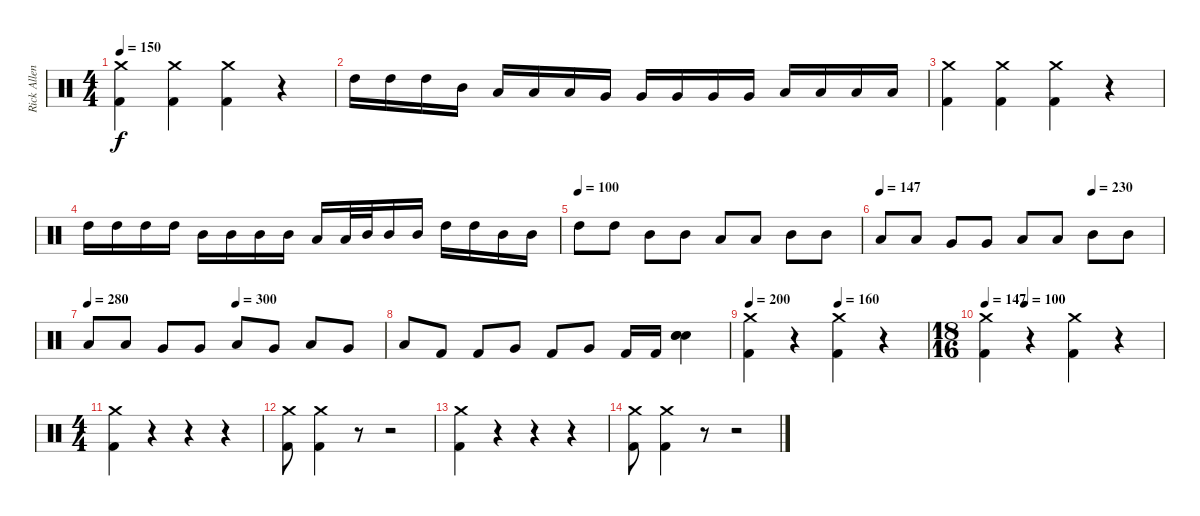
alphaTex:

\track ("Rick Allen" "Rick Allen") {instrument percussion}
\staff {score}
\articulation defaults
\ts (4 4)
\tempo 150
\clef neutral
\ks c
("Crash medium (hit)" "Kick (hit) 2").4{dy f} ("Crash medium (hit)" "Kick (hit) 2").4 ("Crash medium (hit)" "Kick (hit) 2").4 r.4 |
"High Tom (hit)".16 "High Tom (hit)".16 "High Tom (hit)".16 "Mid Tom (hit)".16 "Low Tom (hit)".16 "Low Tom (hit)".16 "Low Tom (hit)".16 "Very Low Tom (hit)".16 "Very Low Tom (hit)".16 "Very Low Tom (hit)".16 "Very Low Tom (hit)".16 "Very Low Tom (hit)".16 "Low Tom (hit)".16 "Low Tom (hit)".16 "Low Tom (hit)".16 "Low Tom (hit)".16 |
("Crash medium (hit)" "Kick (hit) 2").4 ("Crash medium (hit)" "Kick (hit) 2").4 ("Crash medium (hit)" "Kick (hit) 2").4 r.4 |
"High Tom (hit)".16 "High Tom (hit)".16 "High Tom (hit)".16 "High Tom (hit)".16 "Mid Tom (hit)".16 "Mid Tom (hit)".16 "Mid Tom (hit)".16 "Mid Tom (hit)".16 "Low Tom (hit)".16 "Low Tom (hit)".32 "Mid Tom (hit)".32 "Mid Tom (hit)".16 "Mid Tom (hit)".16 "High Tom (hit)".16 "High Tom (hit)".16 "Mid Tom (hit)".16 "Mid Tom (hit)".16 |
\tempo (100)
"High Tom (hit)".8 "High Tom (hit)".8 "Mid Tom (hit)".8 "Mid Tom (hit)".8 "Low Tom (hit)".8 "Low Tom (hit)".8 "Mid Tom (hit)".8 "Mid Tom (hit)".8 |
\tempo 147
\tempo (230 0.75)
"Low Tom (hit)".8 "Low Tom (hit)".8 "Very Low Tom (hit)".8 "Very Low Tom (hit)".8 "Low Tom (hit)".8 "Low Tom (hit)".8 "Mid Tom (hit)".8 "Mid Tom (hit)".8 |
\tempo 280
\tempo (300 0.5)
"Low Tom (hit)".8 "Low Tom (hit)".8 "Very Low Tom (hit)".8 "Very Low Tom (hit)".8 "Low Tom (hit)".8 "Very Low Tom (hit)".8 "Low Tom (hit)".8 "Very Low Tom (hit)".8 |
"Low Tom (hit)".8 "Kick (hit) 2".8 "Kick (hit) 2".8 "Very Low Tom (hit)".8 "Kick (hit) 2".8 "Very Low Tom (hit)".8 "Kick (hit) 2".16 "Kick (hit) 2".16 ("Snare (hit) 2" "Snare (hit) 2" "Snare (hit) 2").4 |
\tempo 200
\tempo (160 0.5)
("Crash medium (hit)" "Kick (hit) 2").4 r.4 ("Crash medium (hit)" "Kick (hit) 2").4 r.4 |
\ts (18 16)
\tempo 147
\tempo (100 0.2222222222222222)
("Crash medium (hit)" "Kick (hit) 2").4 r.4 ("Crash medium (hit)" "Kick (hit) 2").4 r.4 |
\ts (4 4)
("Crash medium (hit)" "Kick (hit) 2").4 r.4 r.4 r.4 |
("Crash medium (hit)" "Kick (hit) 2").8 ("Crash medium (hit)" "Kick (hit) 2").4 r.8 r.2 |
("Crash medium (hit)" "Kick (hit) 2").4 r.4 r.4 r.4 |
("Crash medium (hit)" "Kick (hit) 2").8 ("Crash medium (hit)" "Kick (hit) 2").4 r.8 r.2
